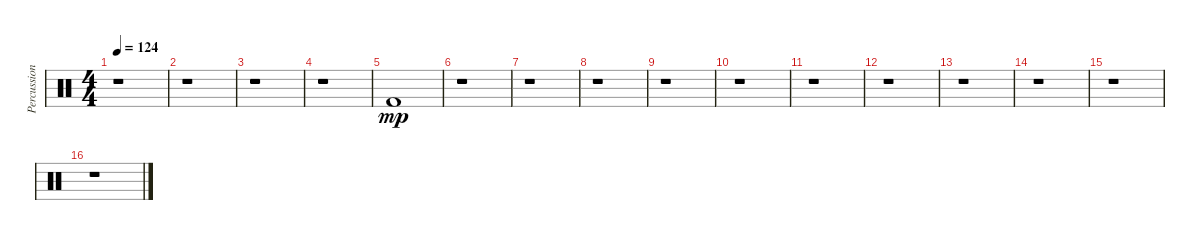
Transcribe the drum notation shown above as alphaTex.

\track ("Percussion" "Percussion") {instrument percussion}
\staff {score}
\articulation defaults
\ts (4 4)
\tempo 124
\clef neutral
\ks c
r.1{dy f} |
r.1 |
r.1 |
r.1 |
"Kick (hit) 2".1{dy mp} |
r.1 |
r.1 |
r.1 |
r.1 |
r.1 |
r.1 |
r.1 |
r.1 |
r.1 |
r.1 |
r.1
